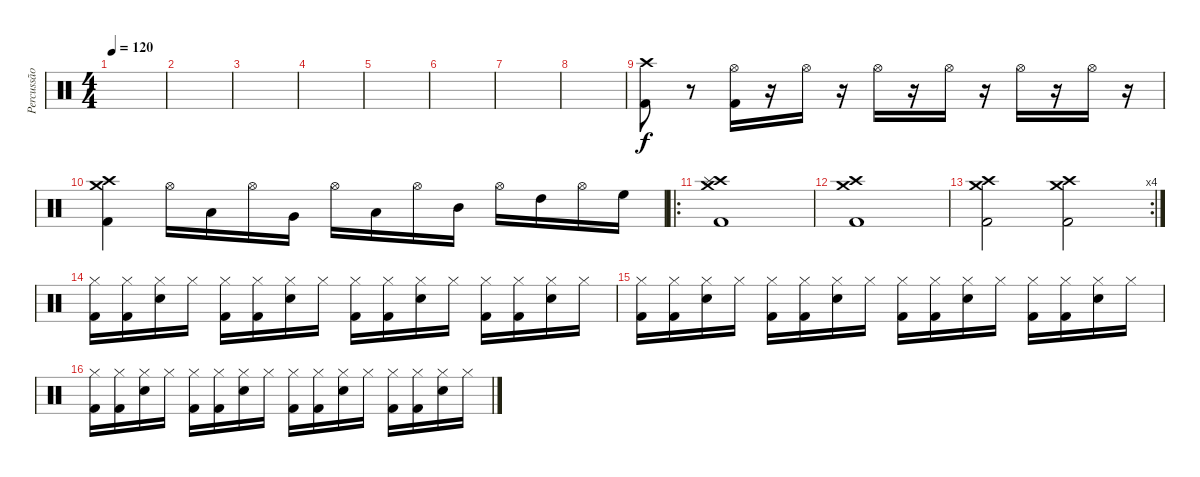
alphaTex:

\track ("Percussão" "Percussão") {instrument percussion}
\staff {score}
\articulation defaults
\ts (4 4)
\tempo 120
\clef neutral
\ks c
|
|
|
|
|
|
|
|
("Crash high (hit)" "Kick (hit) 2").8 r.8 ("Hi-Hat (open)" "Kick (hit) 2").16 r.16 "Hi-Hat (open)".16 r.16 "Hi-Hat (open)".16 r.16 "Hi-Hat (open)".16 r.16 "Hi-Hat (open)".16 r.16 "Hi-Hat (open)".16 r.16 |
("Crash high (hit)" "Crash medium (hit)" "Kick (hit) 2").4 "Hi-Hat (open)".16 "Low Floor Tom (hit)".16 "Hi-Hat (open)".16 "Very Low Tom (hit)".16 "Hi-Hat (open)".16 "Low Tom (hit)".16 "Hi-Hat (open)".16 "Mid Tom (hit)".16 "Hi-Hat (open)".16 "High Tom (hit)".16 "Hi-Hat (open)".16 "High Floor Tom (hit)".16 |
\ro
("Crash high (hit)" "Crash medium (hit)" "Splash (hit)" "Kick (hit) 2").1 |
("Crash high (hit)" "Crash medium (hit)" "Kick (hit) 2").1 |
\rc 4
("Crash medium (hit)" "Crash high (hit)" "Kick (hit) 2").2 ("Crash medium (hit)" "Crash high (hit)" "Kick (hit) 2").2 |
("Hi-Hat (closed)" "Kick (hit) 2").16 ("Hi-Hat (closed)" "Kick (hit) 2").16 ("Hi-Hat (closed)" "Electric Snare (hit)").16 "Hi-Hat (closed)".16 ("Hi-Hat (closed)" "Kick (hit) 2").16 ("Hi-Hat (closed)" "Kick (hit) 2").16 ("Hi-Hat (closed)" "Electric Snare (hit)").16 "Hi-Hat (closed)".16 ("Hi-Hat (closed)" "Kick (hit) 2").16 ("Hi-Hat (closed)" "Kick (hit) 2").16 ("Hi-Hat (closed)" "Electric Snare (hit)").16 "Hi-Hat (closed)".16 ("Hi-Hat (closed)" "Kick (hit) 2").16 ("Hi-Hat (closed)" "Kick (hit) 2").16 ("Hi-Hat (closed)" "Electric Snare (hit)").16 "Hi-Hat (closed)".16 |
("Hi-Hat (closed)" "Kick (hit) 2").16 ("Hi-Hat (closed)" "Kick (hit) 2").16 ("Hi-Hat (closed)" "Electric Snare (hit)").16 "Hi-Hat (closed)".16 ("Hi-Hat (closed)" "Kick (hit) 2").16 ("Hi-Hat (closed)" "Kick (hit) 2").16 ("Hi-Hat (closed)" "Electric Snare (hit)").16 "Hi-Hat (closed)".16 ("Hi-Hat (closed)" "Kick (hit) 2").16 ("Hi-Hat (closed)" "Kick (hit) 2").16 ("Hi-Hat (closed)" "Electric Snare (hit)").16 "Hi-Hat (closed)".16 ("Hi-Hat (closed)" "Kick (hit) 2").16 ("Hi-Hat (closed)" "Kick (hit) 2").16 ("Hi-Hat (closed)" "Electric Snare (hit)").16 "Hi-Hat (closed)".16 |
("Hi-Hat (closed)" "Kick (hit) 2").16 ("Hi-Hat (closed)" "Kick (hit) 2").16 ("Hi-Hat (closed)" "Electric Snare (hit)").16 "Hi-Hat (closed)".16 ("Hi-Hat (closed)" "Kick (hit) 2").16 ("Hi-Hat (closed)" "Kick (hit) 2").16 ("Hi-Hat (closed)" "Electric Snare (hit)").16 "Hi-Hat (closed)".16 ("Hi-Hat (closed)" "Kick (hit) 2").16 ("Hi-Hat (closed)" "Kick (hit) 2").16 ("Hi-Hat (closed)" "Electric Snare (hit)").16 "Hi-Hat (closed)".16 ("Hi-Hat (closed)" "Kick (hit) 2").16 ("Hi-Hat (closed)" "Kick (hit) 2").16 ("Hi-Hat (closed)" "Electric Snare (hit)").16 "Hi-Hat (closed)".16
